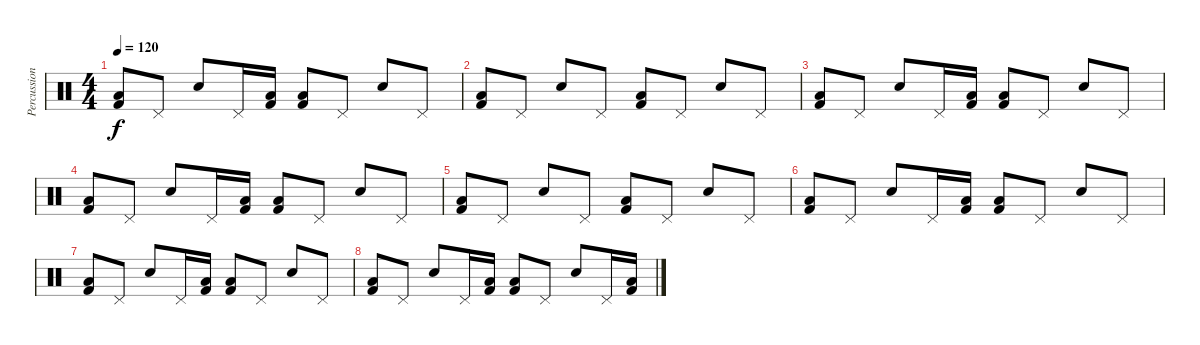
\track ("Percussions" "Percussion") {instrument percussion}
\staff {score}
\articulation defaults
\ts (4 4)
\tempo 120
\clef neutral
\ks c
("Kick (hit) 2" "Low Floor Tom (hit)").8{dy f} "Pedal Hi-Hat (hit)".8 "Snare (hit) 2".8 "Pedal Hi-Hat (hit)".16 ("Kick (hit) 2" "Low Floor Tom (hit)").16 ("Kick (hit) 2" "Low Floor Tom (hit)").8 "Pedal Hi-Hat (hit)".8 "Snare (hit) 2".8 "Pedal Hi-Hat (hit)".8 |
("Kick (hit) 2" "Low Floor Tom (hit)").8 "Pedal Hi-Hat (hit)".8 "Snare (hit) 2".8 "Pedal Hi-Hat (hit)".8 ("Kick (hit) 2" "Low Floor Tom (hit)").8 "Pedal Hi-Hat (hit)".8 "Snare (hit) 2".8 "Pedal Hi-Hat (hit)".8 |
("Kick (hit) 2" "Low Floor Tom (hit)").8 "Pedal Hi-Hat (hit)".8 "Snare (hit) 2".8 "Pedal Hi-Hat (hit)".16 ("Kick (hit) 2" "Low Floor Tom (hit)").16 ("Kick (hit) 2" "Low Floor Tom (hit)").8 "Pedal Hi-Hat (hit)".8 "Snare (hit) 2".8 "Pedal Hi-Hat (hit)".8 |
("Kick (hit) 2" "Low Floor Tom (hit)").8 "Pedal Hi-Hat (hit)".8 "Snare (hit) 2".8 "Pedal Hi-Hat (hit)".16 ("Kick (hit) 2" "Low Floor Tom (hit)").16 ("Kick (hit) 2" "Low Floor Tom (hit)").8 "Pedal Hi-Hat (hit)".8 "Snare (hit) 2".8 "Pedal Hi-Hat (hit)".8 |
("Kick (hit) 2" "Low Floor Tom (hit)").8 "Pedal Hi-Hat (hit)".8 "Snare (hit) 2".8 "Pedal Hi-Hat (hit)".8 ("Kick (hit) 2" "Low Floor Tom (hit)").8 "Pedal Hi-Hat (hit)".8 "Snare (hit) 2".8 "Pedal Hi-Hat (hit)".8 |
("Kick (hit) 2" "Low Floor Tom (hit)").8 "Pedal Hi-Hat (hit)".8 "Snare (hit) 2".8 "Pedal Hi-Hat (hit)".16 ("Kick (hit) 2" "Low Floor Tom (hit)").16 ("Kick (hit) 2" "Low Floor Tom (hit)").8 "Pedal Hi-Hat (hit)".8 "Snare (hit) 2".8 "Pedal Hi-Hat (hit)".8 |
("Kick (hit) 2" "Low Floor Tom (hit)").8 "Pedal Hi-Hat (hit)".8 "Snare (hit) 2".8 "Pedal Hi-Hat (hit)".16 ("Kick (hit) 2" "Low Floor Tom (hit)").16 ("Kick (hit) 2" "Low Floor Tom (hit)").8 "Pedal Hi-Hat (hit)".8 "Snare (hit) 2".8 "Pedal Hi-Hat (hit)".8 |
("Kick (hit) 2" "Low Floor Tom (hit)").8 "Pedal Hi-Hat (hit)".8 "Snare (hit) 2".8 "Pedal Hi-Hat (hit)".16 ("Kick (hit) 2" "Low Floor Tom (hit)").16 ("Kick (hit) 2" "Low Floor Tom (hit)").8 "Pedal Hi-Hat (hit)".8 "Snare (hit) 2".8 "Pedal Hi-Hat (hit)".16 ("Kick (hit) 2" "Low Floor Tom (hit)").16
